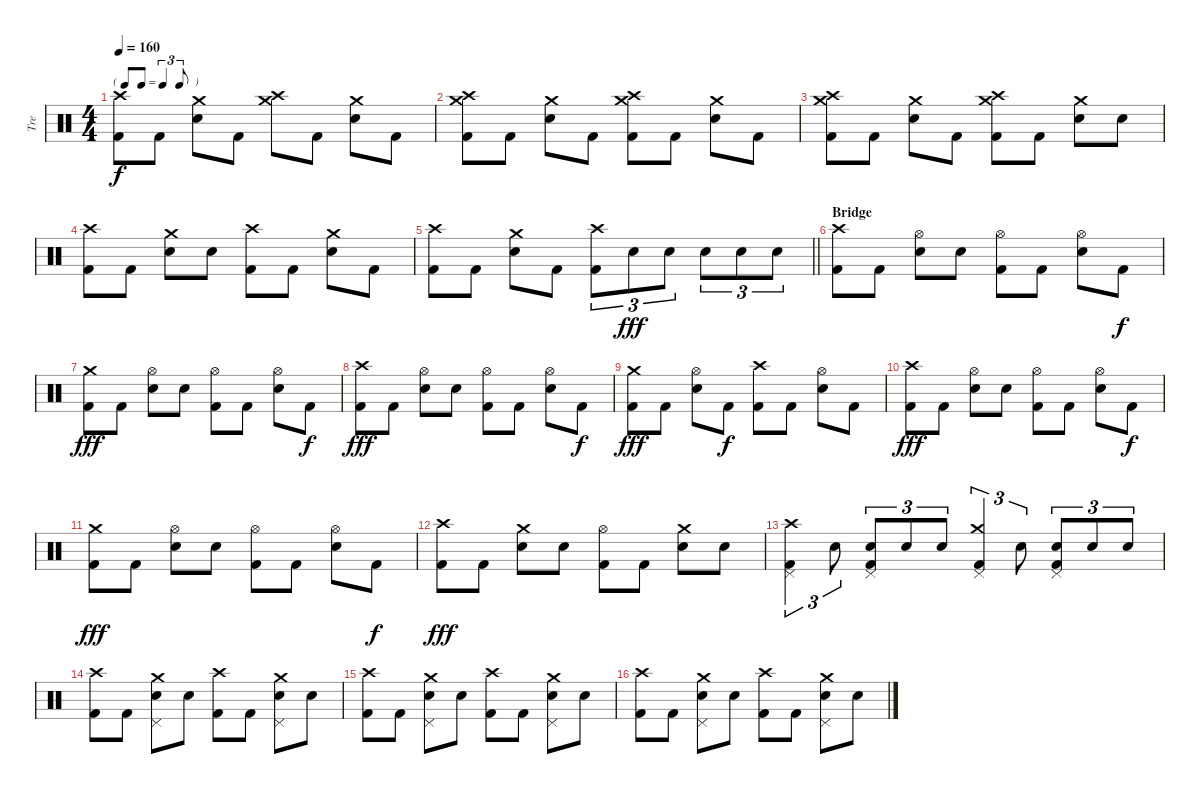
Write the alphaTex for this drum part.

\track ("Tre" "Tre") {instrument percussion}
\staff {score}
\articulation defaults
\ts (4 4)
\tf triplet8th
\tempo 160
\clef neutral
\ks c
("Crash high (hit)" "Kick (hit) 2").8{dy f} "Kick (hit) 2".8 ("Crash medium (hit)" "Snare (hit) 2").8 "Kick (hit) 2".8 ("Crash medium (hit)" "Crash high (hit)").8 "Kick (hit) 2".8 ("Crash medium (hit)" "Snare (hit) 2").8 "Kick (hit) 2".8 |
("Crash medium (hit)" "Crash high (hit)" "Kick (hit) 2").8 "Kick (hit) 2".8 ("Crash medium (hit)" "Snare (hit) 2").8 "Kick (hit) 2".8 ("Crash medium (hit)" "Crash high (hit)" "Kick (hit) 2").8 "Kick (hit) 2".8 ("Crash medium (hit)" "Snare (hit) 2").8 "Kick (hit) 2".8 |
("Crash medium (hit)" "Crash high (hit)" "Kick (hit) 2").8 "Kick (hit) 2".8 ("Crash medium (hit)" "Snare (hit) 2").8 "Kick (hit) 2".8 ("Crash medium (hit)" "Crash high (hit)" "Kick (hit) 2").8 "Kick (hit) 2".8 ("Crash medium (hit)" "Snare (hit) 2").8 "Snare (hit) 2".8 |
("Crash high (hit)" "Kick (hit) 2").8 "Kick (hit) 2".8 ("Crash medium (hit)" "Snare (hit) 2").8 "Snare (hit) 2".8 ("Crash high (hit)" "Kick (hit) 2").8 "Kick (hit) 2".8 ("Crash medium (hit)" "Snare (hit) 2").8 "Kick (hit) 2".8 |
\barLineRight lightlight
("Crash high (hit)" "Kick (hit) 2").8 "Kick (hit) 2".8 ("Crash medium (hit)" "Snare (hit) 2").8 "Kick (hit) 2".8 ("Crash high (hit)" "Kick (hit) 2").8{tu (3 2)} "Snare (hit) 2".8{tu (3 2) dy fff} "Snare (hit) 2".8{tu (3 2)} "Snare (hit) 2".8{tu (3 2)} "Snare (hit) 2".8{tu (3 2)} "Snare (hit) 2".8{tu (3 2)} |
\section ("" "Bridge")
("Crash high (hit)" "Kick (hit) 2").8 "Kick (hit) 2".8 ("Hi-Hat (open)" "Snare (hit) 2").8 "Snare (hit) 2".8 ("Hi-Hat (open)" "Kick (hit) 2").8 "Kick (hit) 2".8 ("Hi-Hat (open)" "Snare (hit) 2").8 "Kick (hit) 2".8{dy f} |
("Crash medium (hit)" "Kick (hit) 2").8{dy fff} "Kick (hit) 2".8 ("Hi-Hat (open)" "Snare (hit) 2").8 "Snare (hit) 2".8 ("Hi-Hat (open)" "Kick (hit) 2").8 "Kick (hit) 2".8 ("Hi-Hat (open)" "Snare (hit) 2").8 "Kick (hit) 2".8{dy f} |
("Crash high (hit)" "Kick (hit) 2").8{dy fff} "Kick (hit) 2".8 ("Hi-Hat (open)" "Snare (hit) 2").8 "Snare (hit) 2".8 ("Hi-Hat (open)" "Kick (hit) 2").8 "Kick (hit) 2".8 ("Hi-Hat (open)" "Snare (hit) 2").8 "Kick (hit) 2".8{dy f} |
("Crash medium (hit)" "Kick (hit) 2").8{dy fff} "Kick (hit) 2".8 ("Hi-Hat (open)" "Snare (hit) 2").8 "Kick (hit) 2".8{dy f} ("Crash high (hit)" "Kick (hit) 2").8 "Kick (hit) 2".8 ("Hi-Hat (open)" "Snare (hit) 2").8 "Kick (hit) 2".8 |
("Crash high (hit)" "Kick (hit) 2").8{dy fff} "Kick (hit) 2".8 ("Hi-Hat (open)" "Snare (hit) 2").8 "Snare (hit) 2".8 ("Hi-Hat (open)" "Kick (hit) 2").8 "Kick (hit) 2".8 ("Hi-Hat (open)" "Snare (hit) 2").8 "Kick (hit) 2".8{dy f} |
("Crash medium (hit)" "Kick (hit) 2").8{dy fff} "Kick (hit) 2".8 ("Hi-Hat (open)" "Snare (hit) 2").8 "Snare (hit) 2".8 ("Hi-Hat (open)" "Kick (hit) 2").8 "Kick (hit) 2".8 ("Hi-Hat (open)" "Snare (hit) 2").8 "Kick (hit) 2".8{dy f} |
("Crash high (hit)" "Kick (hit) 2").8{dy fff} "Kick (hit) 2".8 ("Crash medium (hit)" "Snare (hit) 2").8 "Snare (hit) 2".8 ("Hi-Hat (open)" "Kick (hit) 2").8 "Kick (hit) 2".8 ("Crash medium (hit)" "Snare (hit) 2").8 "Snare (hit) 2".8 |
("Crash high (hit)" "Pedal Hi-Hat (hit)" "Kick (hit) 2").4{tu (3 2)} "Snare (hit) 2".8{tu (3 2)} ("Snare (hit) 2" "Pedal Hi-Hat (hit)" "Kick (hit) 2").8{tu (3 2)} "Snare (hit) 2".8{tu (3 2)} "Snare (hit) 2".8{tu (3 2)} ("Crash medium (hit)" "Pedal Hi-Hat (hit)" "Kick (hit) 2").4{tu (3 2)} "Snare (hit) 2".8{tu (3 2)} ("Snare (hit) 2" "Pedal Hi-Hat (hit)" "Kick (hit) 2").8{tu (3 2)} "Snare (hit) 2".8{tu (3 2)} "Snare (hit) 2".8{tu (3 2)} |
("Crash high (hit)" "Kick (hit) 2").8 "Kick (hit) 2".8 ("Crash medium (hit)" "Snare (hit) 2" "Pedal Hi-Hat (hit)").8 "Snare (hit) 2".8 ("Crash high (hit)" "Kick (hit) 2").8 "Kick (hit) 2".8 ("Crash medium (hit)" "Snare (hit) 2" "Pedal Hi-Hat (hit)").8 "Snare (hit) 2".8 |
("Crash high (hit)" "Kick (hit) 2").8 "Kick (hit) 2".8 ("Crash medium (hit)" "Snare (hit) 2" "Pedal Hi-Hat (hit)").8 "Snare (hit) 2".8 ("Crash high (hit)" "Kick (hit) 2").8 "Kick (hit) 2".8 ("Crash medium (hit)" "Snare (hit) 2" "Pedal Hi-Hat (hit)").8 "Snare (hit) 2".8 |
("Crash high (hit)" "Kick (hit) 2").8 "Kick (hit) 2".8 ("Crash medium (hit)" "Snare (hit) 2" "Pedal Hi-Hat (hit)").8 "Snare (hit) 2".8 ("Crash high (hit)" "Kick (hit) 2").8 "Kick (hit) 2".8 ("Crash medium (hit)" "Snare (hit) 2" "Pedal Hi-Hat (hit)").8 "Snare (hit) 2".8
